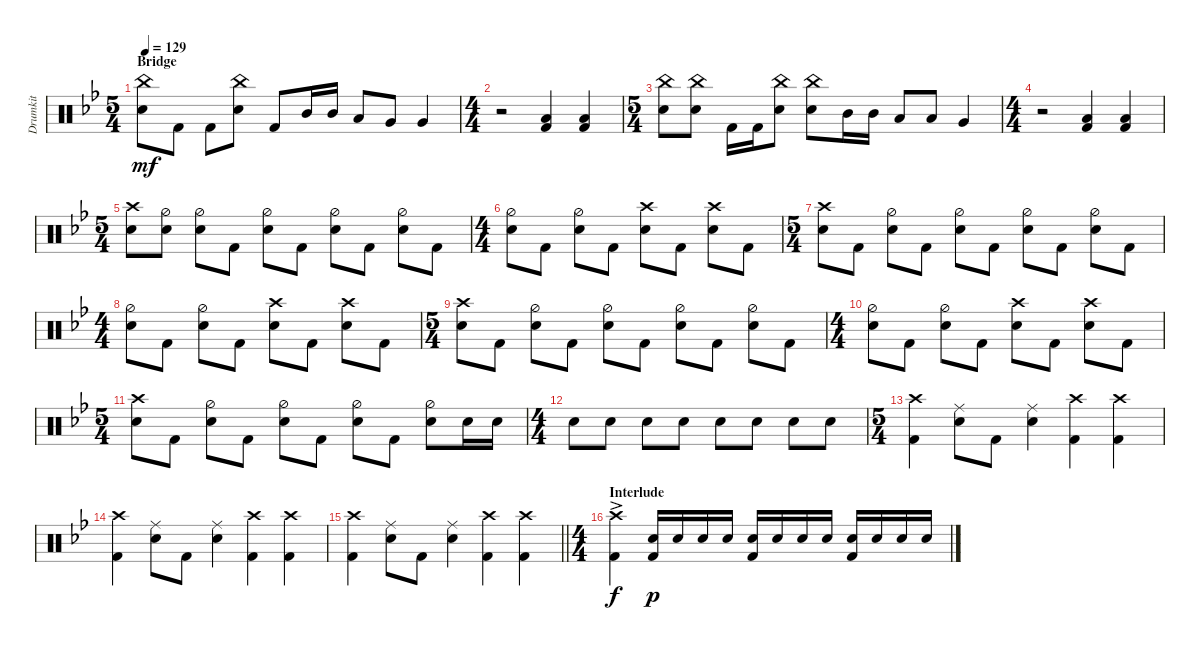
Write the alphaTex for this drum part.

\track ("Drumkit" "Drumkit") {instrument percussion}
\staff {score}
\articulation defaults
\ts (5 4)
\section ("" "Bridge")
\tempo 129
\clef neutral
\ks bb
("China (hit)" "Snare (hit) 2").8{dy mf} "Kick (hit) 2".8 "Kick (hit) 2".8 ("China (hit)" "Snare (hit) 2").8 "Kick (hit) 2".8 "Mid Tom (hit)".16 "Mid Tom (hit)".16 "Low Tom (hit)".8 "Very Low Tom (hit)".8 "Very Low Tom (hit)".4 |
\ts (4 4)
r.2 ("Kick (hit) 2" "Low Tom (hit)").4 ("Kick (hit) 2" "Low Tom (hit)").4 |
\ts (5 4)
("China (hit)" "Snare (hit) 2").8 ("China (hit)" "Snare (hit) 2").8 "Kick (hit) 2".16 "Kick (hit) 2".16 ("China (hit)" "Snare (hit) 2").8 ("China (hit)" "Snare (hit) 2").8 "Mid Tom (hit)".16 "Mid Tom (hit)".16 "Low Tom (hit)".8 "Low Tom (hit)".8 "Very Low Tom (hit)".4 |
\ts (4 4)
r.2 ("Kick (hit) 2" "Low Tom (hit)").4 ("Kick (hit) 2" "Low Tom (hit)").4 |
\ts (5 4)
("Crash high (hit)" "Snare (hit) 2").8 ("Hi-Hat (half)" "Snare (hit) 2").8 ("Hi-Hat (half)" "Snare (hit) 2").8 "Kick (hit) 2".8 ("Snare (hit) 2" "Hi-Hat (half)").8 "Kick (hit) 2".8 ("Snare (hit) 2" "Hi-Hat (half)").8 "Kick (hit) 2".8 ("Snare (hit) 2" "Hi-Hat (half)").8 "Kick (hit) 2".8 |
\ts (4 4)
("Snare (hit) 2" "Hi-Hat (half)").8 "Kick (hit) 2".8 ("Snare (hit) 2" "Hi-Hat (half)").8 "Kick (hit) 2".8 ("Crash high (hit)" "Snare (hit) 2").8 "Kick (hit) 2".8 ("Crash high (hit)" "Snare (hit) 2").8 "Kick (hit) 2".8 |
\ts (5 4)
("Crash high (hit)" "Snare (hit) 2").8 "Kick (hit) 2".8 ("Snare (hit) 2" "Hi-Hat (half)").8 "Kick (hit) 2".8 ("Snare (hit) 2" "Hi-Hat (half)").8 "Kick (hit) 2".8 ("Snare (hit) 2" "Hi-Hat (half)").8 "Kick (hit) 2".8 ("Snare (hit) 2" "Hi-Hat (half)").8 "Kick (hit) 2".8 |
\ts (4 4)
("Snare (hit) 2" "Hi-Hat (half)").8 "Kick (hit) 2".8 ("Snare (hit) 2" "Hi-Hat (half)").8 "Kick (hit) 2".8 ("Crash high (hit)" "Snare (hit) 2").8 "Kick (hit) 2".8 ("Crash high (hit)" "Snare (hit) 2").8 "Kick (hit) 2".8 |
\ts (5 4)
("Crash high (hit)" "Snare (hit) 2").8 "Kick (hit) 2".8 ("Snare (hit) 2" "Hi-Hat (half)").8 "Kick (hit) 2".8 ("Snare (hit) 2" "Hi-Hat (half)").8 "Kick (hit) 2".8 ("Snare (hit) 2" "Hi-Hat (half)").8 "Kick (hit) 2".8 ("Snare (hit) 2" "Hi-Hat (half)").8 "Kick (hit) 2".8 |
\ts (4 4)
("Snare (hit) 2" "Hi-Hat (half)").8 "Kick (hit) 2".8 ("Snare (hit) 2" "Hi-Hat (half)").8 "Kick (hit) 2".8 ("Crash high (hit)" "Snare (hit) 2").8 "Kick (hit) 2".8 ("Crash high (hit)" "Snare (hit) 2").8 "Kick (hit) 2".8 |
\ts (5 4)
("Crash high (hit)" "Snare (hit) 2").8 "Kick (hit) 2".8 ("Snare (hit) 2" "Hi-Hat (half)").8 "Kick (hit) 2".8 ("Snare (hit) 2" "Hi-Hat (half)").8 "Kick (hit) 2".8 ("Snare (hit) 2" "Hi-Hat (half)").8 "Kick (hit) 2".8 ("Snare (hit) 2" "Hi-Hat (half)").8 "Snare (hit) 2".16 "Snare (hit) 2".16 |
\ts (4 4)
"Snare (hit) 2".8 "Snare (hit) 2".8 "Snare (hit) 2".8 "Snare (hit) 2".8 "Snare (hit) 2".8 "Snare (hit) 2".8 "Snare (hit) 2".8 "Snare (hit) 2".8 |
\ts (5 4)
("Crash high (hit)" "Kick (hit) 2").4 ("Ride (middle)" "Snare (hit) 2").8 "Kick (hit) 2".8 ("Ride (middle)" "Snare (hit) 2").4 ("Crash high (hit)" "Kick (hit) 2").4 ("Crash high (hit)" "Kick (hit) 2").4 |
("Crash high (hit)" "Kick (hit) 2").4 ("Ride (middle)" "Snare (hit) 2").8 "Kick (hit) 2".8 ("Ride (middle)" "Snare (hit) 2").4 ("Crash high (hit)" "Kick (hit) 2").4 ("Crash high (hit)" "Kick (hit) 2").4 |
\barLineRight lightlight
("Crash high (hit)" "Kick (hit) 2").4 ("Ride (middle)" "Snare (hit) 2").8 "Kick (hit) 2".8 ("Ride (middle)" "Snare (hit) 2").4 ("Crash high (hit)" "Kick (hit) 2").4 ("Crash high (hit)" "Kick (hit) 2").4 |
\ts (4 4)
\section ("" "Interlude")
("Crash high (hit)"{ac} "Kick (hit) 2"{ac}).4{dy f} ("Snare (hit) 2" "Kick (hit) 2").16{dy p} "Snare (hit) 2".16 "Snare (hit) 2".16 "Snare (hit) 2".16 ("Snare (hit) 2" "Kick (hit) 2").16 "Snare (hit) 2".16 "Snare (hit) 2".16 "Snare (hit) 2".16 ("Snare (hit) 2" "Kick (hit) 2").16 "Snare (hit) 2".16 "Snare (hit) 2".16 "Snare (hit) 2".16
